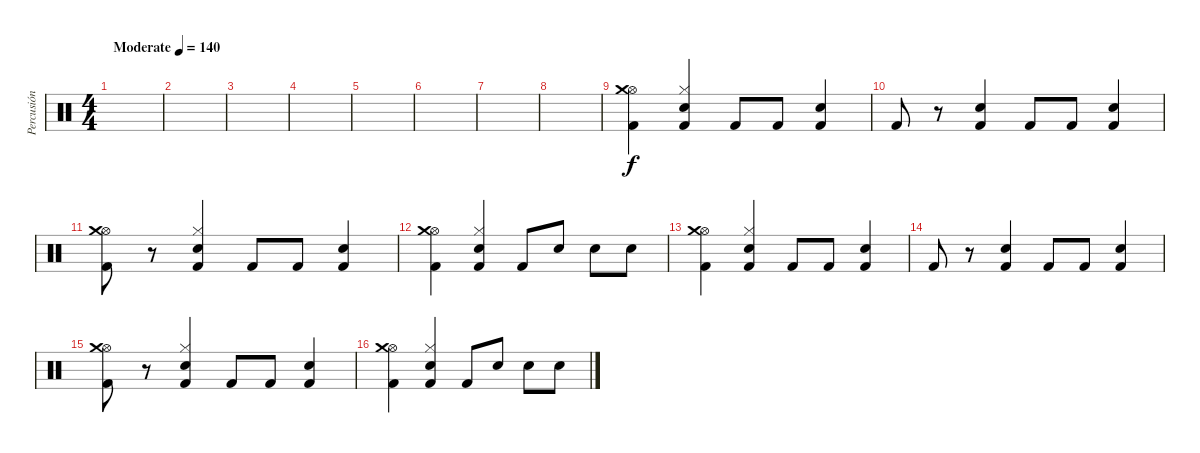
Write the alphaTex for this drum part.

\track ("Percusión" "Percusión") {instrument percussion}
\staff {score}
\articulation defaults
\ts (4 4)
\tempo (140 "Moderate")
\clef neutral
\ks c
|
|
|
|
|
|
|
|
("Hi-Hat (open)" "Crash medium (hit)" "Kick (hit) 2").4 ("Hi-Hat (closed)" "Snare (hit) 2" "Kick (hit) 2").4 "Kick (hit) 2".8 "Kick (hit) 2".8 ("Snare (hit) 2" "Kick (hit) 2").4 |
"Kick (hit) 2".8 r.8 ("Snare (hit) 2" "Kick (hit) 2").4 "Kick (hit) 2".8 "Kick (hit) 2".8 ("Snare (hit) 2" "Kick (hit) 2").4 |
("Hi-Hat (open)" "Crash medium (hit)" "Kick (hit) 2").8 r.8 ("Hi-Hat (closed)" "Snare (hit) 2" "Kick (hit) 2").4 "Kick (hit) 2".8 "Kick (hit) 2".8 ("Snare (hit) 2" "Kick (hit) 2").4 |
("Hi-Hat (open)" "Crash medium (hit)" "Kick (hit) 2").4 ("Hi-Hat (closed)" "Snare (hit) 2" "Kick (hit) 2").4 "Kick (hit) 2".8 "Snare (hit) 2".8 "Snare (hit) 2".8 "Snare (hit) 2".8 |
("Hi-Hat (open)" "Crash medium (hit)" "Kick (hit) 2").4 ("Hi-Hat (closed)" "Snare (hit) 2" "Kick (hit) 2").4 "Kick (hit) 2".8 "Kick (hit) 2".8 ("Snare (hit) 2" "Kick (hit) 2").4 |
"Kick (hit) 2".8 r.8 ("Snare (hit) 2" "Kick (hit) 2").4 "Kick (hit) 2".8 "Kick (hit) 2".8 ("Snare (hit) 2" "Kick (hit) 2").4 |
("Hi-Hat (open)" "Crash medium (hit)" "Kick (hit) 2").8 r.8 ("Hi-Hat (closed)" "Snare (hit) 2" "Kick (hit) 2").4 "Kick (hit) 2".8 "Kick (hit) 2".8 ("Snare (hit) 2" "Kick (hit) 2").4 |
("Hi-Hat (open)" "Crash medium (hit)" "Kick (hit) 2").4 ("Hi-Hat (closed)" "Snare (hit) 2" "Kick (hit) 2").4 "Kick (hit) 2".8 "Snare (hit) 2".8 "Snare (hit) 2".8 "Snare (hit) 2".8
